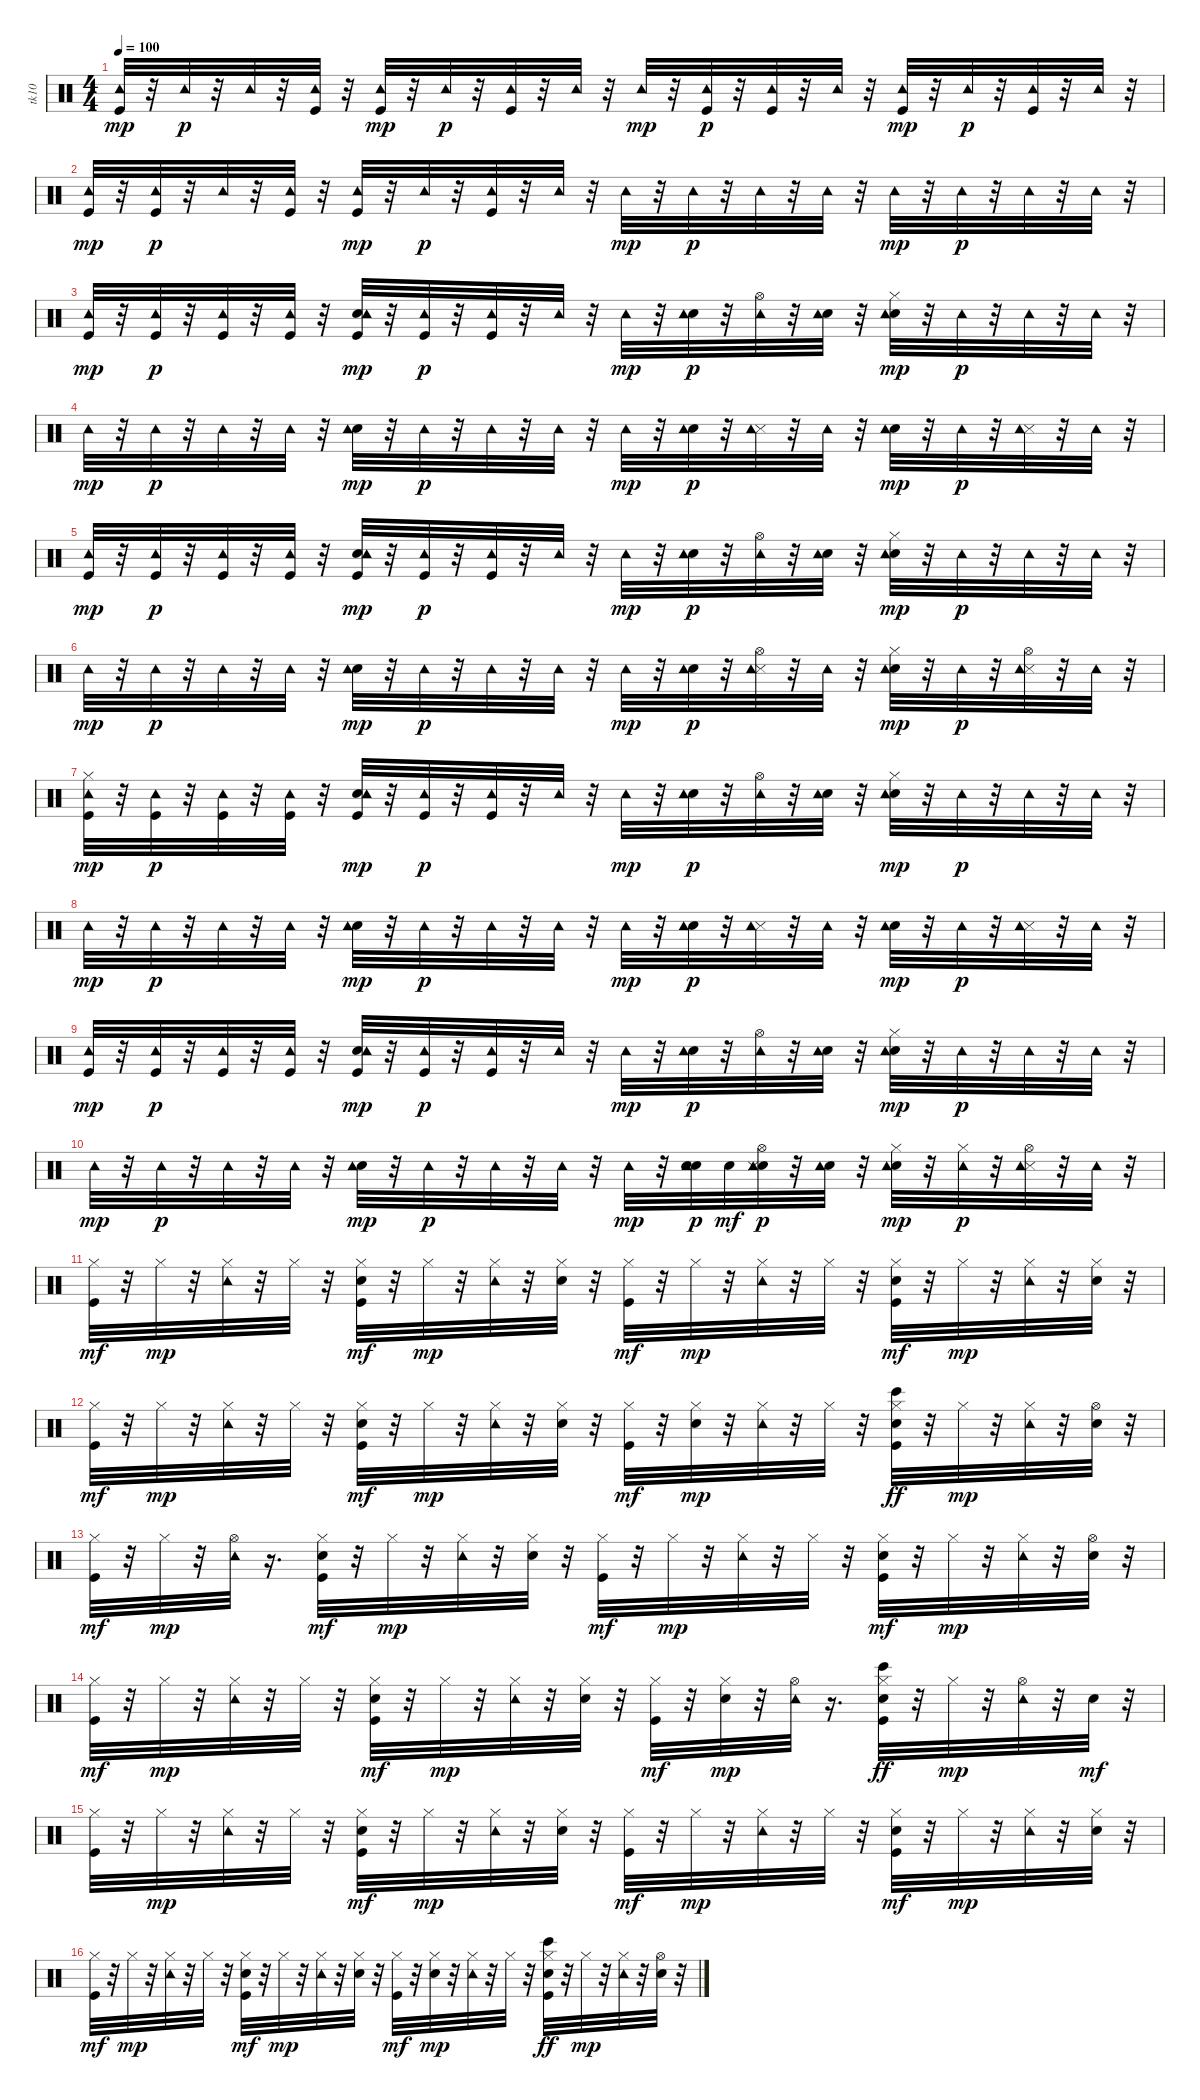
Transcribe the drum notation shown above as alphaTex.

\track ("tk10" "tk10") {instrument percussion}
\staff {score}
\articulation defaults
\ts (4 4)
\tempo 100
\clef neutral
\ks c
("Kick (hit)" "Tambourine (hit)").32{dy mp} r.32 "Tambourine (hit)".32{dy p} r.32 "Tambourine (hit)".32 r.32 ("Kick (hit)" "Tambourine (hit)").32 r.32 ("Kick (hit)" "Tambourine (hit)").32{dy mp} r.32 "Tambourine (hit)".32{dy p} r.32 ("Kick (hit)" "Tambourine (hit)").32 r.32 "Tambourine (hit)".32 r.32 "Tambourine (hit)".32{dy mp} r.32 ("Kick (hit)" "Tambourine (hit)").32{dy p} r.32 ("Kick (hit)" "Tambourine (hit)").32 r.32 "Tambourine (hit)".32 r.32 ("Kick (hit)" "Tambourine (hit)").32{dy mp} r.32 "Tambourine (hit)".32{dy p} r.32 ("Kick (hit)" "Tambourine (hit)").32 r.32 "Tambourine (hit)".32 r.32 |
("Kick (hit)" "Tambourine (hit)").32{dy mp} r.32 ("Kick (hit)" "Tambourine (hit)").32{dy p} r.32 "Tambourine (hit)".32 r.32 ("Kick (hit)" "Tambourine (hit)").32 r.32 ("Kick (hit)" "Tambourine (hit)").32{dy mp} r.32 "Tambourine (hit)".32{dy p} r.32 ("Kick (hit)" "Tambourine (hit)").32 r.32 "Tambourine (hit)".32 r.32 "Tambourine (hit)".32{dy mp} r.32 "Tambourine (hit)".32{dy p} r.32 "Tambourine (hit)".32 r.32 "Tambourine (hit)".32 r.32 "Tambourine (hit)".32{dy mp} r.32 "Tambourine (hit)".32{dy p} r.32 "Tambourine (hit)".32 r.32 "Tambourine (hit)".32 r.32 |
("Kick (hit)" "Tambourine (hit)").32{dy mp} r.32 ("Kick (hit)" "Tambourine (hit)").32{dy p} r.32 ("Kick (hit)" "Tambourine (hit)").32 r.32 ("Kick (hit)" "Tambourine (hit)").32 r.32 ("Kick (hit)" "Snare (hit) 2" "Tambourine (hit)").32{dy mp} r.32 ("Kick (hit)" "Tambourine (hit)").32{dy p} r.32 ("Kick (hit)" "Tambourine (hit)").32 r.32 "Tambourine (hit)".32 r.32 "Tambourine (hit)".32{dy mp} r.32 ("Snare (hit) 2" "Tambourine (hit)").32{dy p} r.32 ("Hi-Hat (open)" "Tambourine (hit)").32 r.32 ("Snare (hit) 2" "Tambourine (hit)").32 r.32 ("Snare (hit) 2" "Hi-Hat (closed)" "Tambourine (hit)").32{dy mp} r.32 "Tambourine (hit)".32{dy p} r.32 "Tambourine (hit)".32 r.32 "Tambourine (hit)".32 r.32 |
"Tambourine (hit)".32{dy mp} r.32 "Tambourine (hit)".32{dy p} r.32 "Tambourine (hit)".32 r.32 "Tambourine (hit)".32 r.32 ("Snare (hit) 2" "Tambourine (hit)").32{dy mp} r.32 "Tambourine (hit)".32{dy p} r.32 "Tambourine (hit)".32 r.32 "Tambourine (hit)".32 r.32 "Tambourine (hit)".32{dy mp} r.32 ("Snare (hit) 2" "Tambourine (hit)").32{dy p} r.32 ("Snare (side stick) 3" "Tambourine (hit)").32 r.32 "Tambourine (hit)".32 r.32 ("Snare (hit) 2" "Tambourine (hit)").32{dy mp} r.32 "Tambourine (hit)".32{dy p} r.32 ("Snare (side stick) 3" "Tambourine (hit)").32 r.32 "Tambourine (hit)".32 r.32 |
("Kick (hit)" "Tambourine (hit)").32{dy mp} r.32 ("Kick (hit)" "Tambourine (hit)").32{dy p} r.32 ("Kick (hit)" "Tambourine (hit)").32 r.32 ("Kick (hit)" "Tambourine (hit)").32 r.32 ("Kick (hit)" "Snare (hit) 2" "Tambourine (hit)").32{dy mp} r.32 ("Kick (hit)" "Tambourine (hit)").32{dy p} r.32 ("Kick (hit)" "Tambourine (hit)").32 r.32 "Tambourine (hit)".32 r.32 "Tambourine (hit)".32{dy mp} r.32 ("Snare (hit) 2" "Tambourine (hit)").32{dy p} r.32 ("Hi-Hat (open)" "Tambourine (hit)").32 r.32 ("Snare (hit) 2" "Tambourine (hit)").32 r.32 ("Snare (hit) 2" "Hi-Hat (closed)" "Tambourine (hit)").32{dy mp} r.32 "Tambourine (hit)".32{dy p} r.32 "Tambourine (hit)".32 r.32 "Tambourine (hit)".32 r.32 |
"Tambourine (hit)".32{dy mp} r.32 "Tambourine (hit)".32{dy p} r.32 "Tambourine (hit)".32 r.32 "Tambourine (hit)".32 r.32 ("Snare (hit) 2" "Tambourine (hit)").32{dy mp} r.32 "Tambourine (hit)".32{dy p} r.32 "Tambourine (hit)".32 r.32 "Tambourine (hit)".32 r.32 "Tambourine (hit)".32{dy mp} r.32 ("Snare (hit) 2" "Tambourine (hit)").32{dy p} r.32 ("Snare (side stick) 3" "Hi-Hat (open)" "Tambourine (hit)").32 r.32 "Tambourine (hit)".32 r.32 ("Snare (hit) 2" "Hi-Hat (closed)" "Tambourine (hit)").32{dy mp} r.32 "Tambourine (hit)".32{dy p} r.32 ("Snare (side stick) 3" "Hi-Hat (open)" "Tambourine (hit)").32 r.32 "Tambourine (hit)".32 r.32 |
("Kick (hit)" "Hi-Hat (closed)" "Tambourine (hit)").32{dy mp} r.32 ("Kick (hit)" "Tambourine (hit)").32{dy p} r.32 ("Kick (hit)" "Tambourine (hit)").32 r.32 ("Kick (hit)" "Tambourine (hit)").32 r.32 ("Kick (hit)" "Snare (hit) 2" "Tambourine (hit)").32{dy mp} r.32 ("Kick (hit)" "Tambourine (hit)").32{dy p} r.32 ("Kick (hit)" "Tambourine (hit)").32 r.32 "Tambourine (hit)".32 r.32 "Tambourine (hit)".32{dy mp} r.32 ("Snare (hit) 2" "Tambourine (hit)").32{dy p} r.32 ("Hi-Hat (open)" "Tambourine (hit)").32 r.32 ("Snare (hit) 2" "Tambourine (hit)").32 r.32 ("Snare (hit) 2" "Hi-Hat (closed)" "Tambourine (hit)").32{dy mp} r.32 "Tambourine (hit)".32{dy p} r.32 "Tambourine (hit)".32 r.32 "Tambourine (hit)".32 r.32 |
"Tambourine (hit)".32{dy mp} r.32 "Tambourine (hit)".32{dy p} r.32 "Tambourine (hit)".32 r.32 "Tambourine (hit)".32 r.32 ("Snare (hit) 2" "Tambourine (hit)").32{dy mp} r.32 "Tambourine (hit)".32{dy p} r.32 "Tambourine (hit)".32 r.32 "Tambourine (hit)".32 r.32 "Tambourine (hit)".32{dy mp} r.32 ("Snare (hit) 2" "Tambourine (hit)").32{dy p} r.32 ("Snare (side stick) 3" "Tambourine (hit)").32 r.32 "Tambourine (hit)".32 r.32 ("Snare (hit) 2" "Tambourine (hit)").32{dy mp} r.32 "Tambourine (hit)".32{dy p} r.32 ("Snare (side stick) 3" "Tambourine (hit)").32 r.32 "Tambourine (hit)".32 r.32 |
("Kick (hit)" "Tambourine (hit)").32{dy mp} r.32 ("Kick (hit)" "Tambourine (hit)").32{dy p} r.32 ("Kick (hit)" "Tambourine (hit)").32 r.32 ("Kick (hit)" "Tambourine (hit)").32 r.32 ("Kick (hit)" "Snare (hit) 2" "Tambourine (hit)").32{dy mp} r.32 ("Kick (hit)" "Tambourine (hit)").32{dy p} r.32 ("Kick (hit)" "Tambourine (hit)").32 r.32 "Tambourine (hit)".32 r.32 "Tambourine (hit)".32{dy mp} r.32 ("Snare (hit) 2" "Tambourine (hit)").32{dy p} r.32 ("Hi-Hat (open)" "Tambourine (hit)").32 r.32 ("Snare (hit) 2" "Tambourine (hit)").32 r.32 ("Snare (hit) 2" "Hi-Hat (closed)" "Tambourine (hit)").32{dy mp} r.32 "Tambourine (hit)".32{dy p} r.32 "Tambourine (hit)".32 r.32 "Tambourine (hit)".32 r.32 |
"Tambourine (hit)".32{dy mp} r.32 "Tambourine (hit)".32{dy p} r.32 "Tambourine (hit)".32 r.32 "Tambourine (hit)".32 r.32 ("Snare (hit) 2" "Tambourine (hit)").32{dy mp} r.32 "Tambourine (hit)".32{dy p} r.32 "Tambourine (hit)".32 r.32 "Tambourine (hit)".32 r.32 "Tambourine (hit)".32{dy mp} r.32 ("Snare (hit) 2" "Tambourine (hit)" "Snare (hit) 2").32{dy p} "Snare (hit) 2".32{dy mf} ("Snare (hit) 2" "Snare (side stick) 3" "Hi-Hat (open)" "Tambourine (hit)").32{dy p} r.32 ("Snare (hit) 2" "Tambourine (hit)").32 r.32 ("Snare (hit) 2" "Hi-Hat (closed)" "Tambourine (hit)").32{dy mp} r.32 ("Hi-Hat (closed)" "Tambourine (hit)").32{dy p} r.32 ("Snare (side stick) 3" "Hi-Hat (open)" "Tambourine (hit)").32 r.32 "Tambourine (hit)".32 r.32 |
("Kick (hit)" "Hi-Hat (closed)").32{dy mf} r.32 "Hi-Hat (closed)".32{dy mp} r.32 ("Hi-Hat (closed)" "Tambourine (hit)").32 r.32 "Hi-Hat (closed)".32 r.32 ("Kick (hit)" "Snare (hit) 2" "Hi-Hat (closed)").32{dy mf} r.32 "Hi-Hat (closed)".32{dy mp} r.32 ("Hi-Hat (closed)" "Tambourine (hit)").32 r.32 ("Snare (hit) 2" "Hi-Hat (closed)").32 r.32 ("Kick (hit)" "Hi-Hat (closed)").32{dy mf} r.32 "Hi-Hat (closed)".32{dy mp} r.32 ("Hi-Hat (closed)" "Tambourine (hit)").32 r.32 "Hi-Hat (closed)".32 r.32 ("Kick (hit)" "Snare (hit) 2" "Hi-Hat (closed)").32{dy mf} r.32 "Hi-Hat (closed)".32{dy mp} r.32 ("Hi-Hat (closed)" "Tambourine (hit)").32 r.32 ("Snare (hit) 2" "Hi-Hat (closed)").32 r.32 |
("Kick (hit)" "Hi-Hat (closed)").32{dy mf} r.32 "Hi-Hat (closed)".32{dy mp} r.32 ("Hi-Hat (closed)" "Tambourine (hit)").32 r.32 "Hi-Hat (closed)".32 r.32 ("Kick (hit)" "Snare (hit) 2" "Hi-Hat (closed)").32{dy mf} r.32 "Hi-Hat (closed)".32{dy mp} r.32 ("Hi-Hat (closed)" "Tambourine (hit)").32 r.32 ("Snare (hit) 2" "Hi-Hat (closed)").32 r.32 ("Kick (hit)" "Hi-Hat (closed)").32{dy mf} r.32 ("Snare (hit) 2" "Hi-Hat (closed)").32{dy mp} r.32 ("Hi-Hat (closed)" "Tambourine (hit)").32 r.32 "Hi-Hat (closed)".32 r.32 ("Kick (hit)" "Snare (hit) 2" "Hi-Hat (closed)" "Bongo High (hit)").32{dy ff} r.32 "Hi-Hat (closed)".32{dy mp} r.32 ("Hi-Hat (closed)" "Tambourine (hit)").32 r.32 ("Snare (hit) 2" "Hi-Hat (open)").32 r.32 |
("Kick (hit)" "Hi-Hat (closed)").32{dy mf} r.32 "Hi-Hat (closed)".32{dy mp} r.32 ("Hi-Hat (open)" "Tambourine (hit)").32 r.16{d} ("Kick (hit)" "Snare (hit) 2" "Hi-Hat (closed)").32{dy mf} r.32 "Hi-Hat (closed)".32{dy mp} r.32 ("Hi-Hat (closed)" "Tambourine (hit)").32 r.32 ("Snare (hit) 2" "Hi-Hat (closed)").32 r.32 ("Kick (hit)" "Hi-Hat (closed)").32{dy mf} r.32 "Hi-Hat (closed)".32{dy mp} r.32 ("Hi-Hat (closed)" "Tambourine (hit)").32 r.32 "Hi-Hat (closed)".32 r.32 ("Kick (hit)" "Snare (hit) 2" "Hi-Hat (closed)").32{dy mf} r.32 "Hi-Hat (closed)".32{dy mp} r.32 ("Hi-Hat (closed)" "Tambourine (hit)").32 r.32 ("Snare (hit) 2" "Hi-Hat (open)").32 r.32 |
("Kick (hit)" "Hi-Hat (closed)").32{dy mf} r.32 "Hi-Hat (closed)".32{dy mp} r.32 ("Hi-Hat (closed)" "Tambourine (hit)").32 r.32 "Hi-Hat (closed)".32 r.32 ("Kick (hit)" "Snare (hit) 2" "Hi-Hat (closed)").32{dy mf} r.32 "Hi-Hat (closed)".32{dy mp} r.32 ("Hi-Hat (closed)" "Tambourine (hit)").32 r.32 ("Snare (hit) 2" "Hi-Hat (closed)").32 r.32 ("Kick (hit)" "Hi-Hat (closed)").32{dy mf} r.32 ("Snare (hit) 2" "Hi-Hat (closed)").32{dy mp} r.32 ("Hi-Hat (open)" "Tambourine (hit)").32 r.16{d} ("Kick (hit)" "Snare (hit) 2" "Hi-Hat (closed)" "Bongo High (hit)").32{dy ff} r.32 "Hi-Hat (closed)".32{dy mp} r.32 ("Hi-Hat (open)" "Tambourine (hit)").32 r.32 "Snare (hit) 2".32{dy mf} r.32 |
("Kick (hit)" "Hi-Hat (closed)").32 r.32 "Hi-Hat (closed)".32{dy mp} r.32 ("Hi-Hat (closed)" "Tambourine (hit)").32 r.32 "Hi-Hat (closed)".32 r.32 ("Kick (hit)" "Snare (hit) 2" "Hi-Hat (closed)").32{dy mf} r.32 "Hi-Hat (closed)".32{dy mp} r.32 ("Hi-Hat (closed)" "Tambourine (hit)").32 r.32 ("Snare (hit) 2" "Hi-Hat (closed)").32 r.32 ("Kick (hit)" "Hi-Hat (closed)").32{dy mf} r.32 "Hi-Hat (closed)".32{dy mp} r.32 ("Hi-Hat (closed)" "Tambourine (hit)").32 r.32 "Hi-Hat (closed)".32 r.32 ("Kick (hit)" "Snare (hit) 2" "Hi-Hat (closed)").32{dy mf} r.32 "Hi-Hat (closed)".32{dy mp} r.32 ("Hi-Hat (closed)" "Tambourine (hit)").32 r.32 ("Snare (hit) 2" "Hi-Hat (closed)").32 r.32 |
("Kick (hit)" "Hi-Hat (closed)").32{dy mf} r.32 "Hi-Hat (closed)".32{dy mp} r.32 ("Hi-Hat (closed)" "Tambourine (hit)").32 r.32 "Hi-Hat (closed)".32 r.32 ("Kick (hit)" "Snare (hit) 2" "Hi-Hat (closed)").32{dy mf} r.32 "Hi-Hat (closed)".32{dy mp} r.32 ("Hi-Hat (closed)" "Tambourine (hit)").32 r.32 ("Snare (hit) 2" "Hi-Hat (closed)").32 r.32 ("Kick (hit)" "Hi-Hat (closed)").32{dy mf} r.32 ("Snare (hit) 2" "Hi-Hat (closed)").32{dy mp} r.32 ("Hi-Hat (closed)" "Tambourine (hit)").32 r.32 "Hi-Hat (closed)".32 r.32 ("Kick (hit)" "Snare (hit) 2" "Hi-Hat (closed)" "Bongo High (hit)").32{dy ff} r.32 "Hi-Hat (closed)".32{dy mp} r.32 ("Hi-Hat (closed)" "Tambourine (hit)").32 r.32 ("Snare (hit) 2" "Hi-Hat (open)").32 r.32
